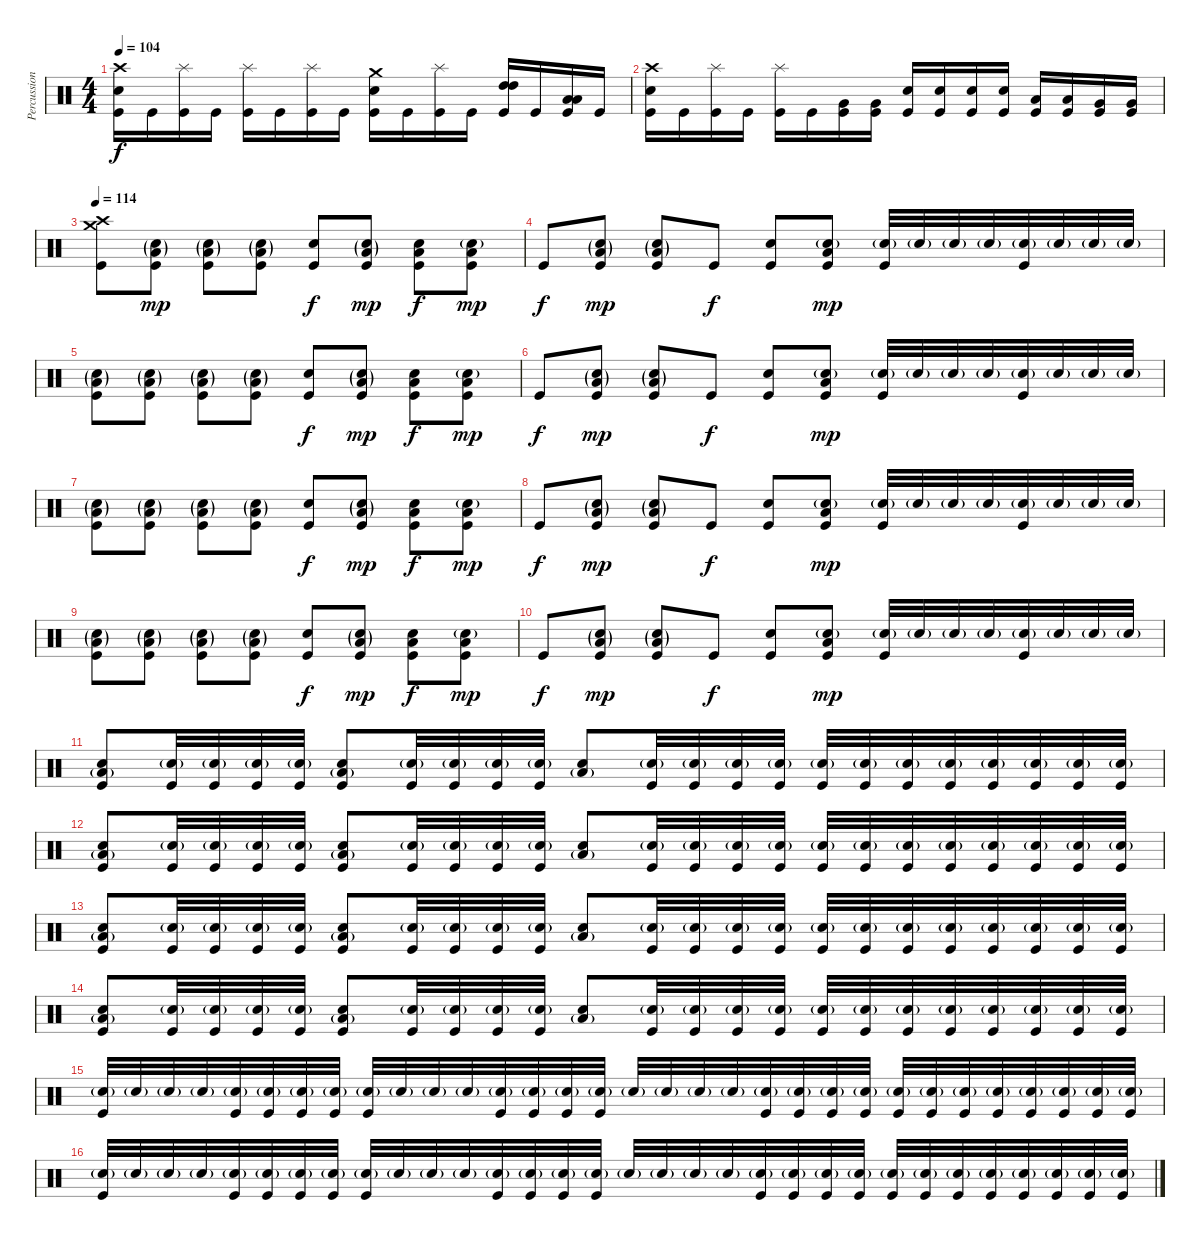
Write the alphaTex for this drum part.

\track ("Percussion" "Percussion") {instrument percussion}
\staff {score}
\articulation defaults
\ts (4 4)
\tempo 104
\clef neutral
\ks c
("Crash high (hit)" "Electric Snare (hit)" "Kick (hit)").16{dy f} "Kick (hit)".16 ("Splash (hit)" "Kick (hit)").16 "Kick (hit)".16 ("Splash (hit)" "Kick (hit)").16 "Kick (hit)".16 ("Splash (hit)" "Kick (hit)").16 "Kick (hit)".16 ("Crash medium (hit)" "Electric Snare (hit)" "Kick (hit)").16 "Kick (hit)".16 ("Splash (hit)" "Kick (hit)").16 "Kick (hit)".16 ("High Tom (hit)" "High Tom (hit)" "Kick (hit)").16 "Kick (hit)".16 ("Low Tom (hit)" "Low Tom (hit)" "Kick (hit)").16 "Kick (hit)".16 |
("Crash high (hit)" "Electric Snare (hit)" "Kick (hit)").16 "Kick (hit)".16 ("Splash (hit)" "Kick (hit)").16 "Kick (hit)".16 ("Splash (hit)" "Kick (hit)").16 "Kick (hit)".16 ("Very Low Tom (hit)" "Kick (hit)").16 ("Very Low Tom (hit)" "Kick (hit)").16 ("Electric Snare (hit)" "Kick (hit)").16 ("Electric Snare (hit)" "Kick (hit)").16 ("Electric Snare (hit)" "Kick (hit)").16 ("Electric Snare (hit)" "Kick (hit)").16 ("Low Tom (hit)" "Kick (hit)").16 ("Low Tom (hit)" "Kick (hit)").16 ("Very Low Tom (hit)" "Kick (hit)").16 ("Very Low Tom (hit)" "Kick (hit)").16 |
\tempo 114
("Crash high (hit)" "Crash medium (hit)" "Kick (hit)").8 ("Electric Snare (hit)"{g} "Low Floor Tom (hit)"{g} "Kick (hit)").8{dy mp} ("Electric Snare (hit)"{g} "Low Floor Tom (hit)"{g} "Kick (hit)").8 ("Electric Snare (hit)"{g} "Low Floor Tom (hit)"{g} "Kick (hit)").8 ("Electric Snare (hit)" "Kick (hit)").8{dy f} ("Electric Snare (hit)"{g} "Low Floor Tom (hit)"{g} "Kick (hit)").8{dy mp} ("Electric Snare (hit)" "Low Floor Tom (hit)" "Kick (hit)").8{dy f} ("Electric Snare (hit)"{g} "Low Floor Tom (hit)" "Kick (hit)").8{dy mp} |
"Kick (hit)".8{dy f} ("Electric Snare (hit)"{g} "Low Floor Tom (hit)"{g} "Kick (hit)").8{dy mp} ("Electric Snare (hit)"{g} "Low Floor Tom (hit)"{g} "Kick (hit)").8 "Kick (hit)".8{dy f} ("Electric Snare (hit)" "Kick (hit)").8 ("Electric Snare (hit)"{g} "Low Floor Tom (hit)" "Kick (hit)").8{dy mp} ("Electric Snare (hit)"{g} "Kick (hit)").32 "Electric Snare (hit)"{g}.32 "Snare (hit) 2"{g}.32 "Electric Snare (hit)"{g}.32 ("Electric Snare (hit)"{g} "Kick (hit)").32 "Electric Snare (hit)"{g}.32 "Electric Snare (hit)"{g}.32 "Electric Snare (hit)"{g}.32 |
("Electric Snare (hit)"{g} "Low Floor Tom (hit)"{g} "Kick (hit)").8 ("Electric Snare (hit)"{g} "Low Floor Tom (hit)"{g} "Kick (hit)").8 ("Electric Snare (hit)"{g} "Low Floor Tom (hit)"{g} "Kick (hit)").8 ("Electric Snare (hit)"{g} "Low Floor Tom (hit)"{g} "Kick (hit)").8 ("Electric Snare (hit)" "Kick (hit)").8{dy f} ("Electric Snare (hit)"{g} "Low Floor Tom (hit)"{g} "Kick (hit)").8{dy mp} ("Electric Snare (hit)" "Low Floor Tom (hit)" "Kick (hit)").8{dy f} ("Electric Snare (hit)"{g} "Low Floor Tom (hit)" "Kick (hit)").8{dy mp} |
"Kick (hit)".8{dy f} ("Electric Snare (hit)"{g} "Low Floor Tom (hit)"{g} "Kick (hit)").8{dy mp} ("Electric Snare (hit)"{g} "Low Floor Tom (hit)"{g} "Kick (hit)").8 "Kick (hit)".8{dy f} ("Electric Snare (hit)" "Kick (hit)").8 ("Electric Snare (hit)"{g} "Low Floor Tom (hit)" "Kick (hit)").8{dy mp} ("Electric Snare (hit)"{g} "Kick (hit)").32 "Electric Snare (hit)"{g}.32 "Electric Snare (hit)"{g}.32 "Electric Snare (hit)"{g}.32 ("Electric Snare (hit)"{g} "Kick (hit)").32 "Electric Snare (hit)"{g}.32 "Electric Snare (hit)"{g}.32 "Electric Snare (hit)"{g}.32 |
("Electric Snare (hit)"{g} "Low Floor Tom (hit)"{g} "Kick (hit)").8 ("Electric Snare (hit)"{g} "Low Floor Tom (hit)"{g} "Kick (hit)").8 ("Electric Snare (hit)"{g} "Low Floor Tom (hit)"{g} "Kick (hit)").8 ("Electric Snare (hit)"{g} "Low Floor Tom (hit)"{g} "Kick (hit)").8 ("Electric Snare (hit)" "Kick (hit)").8{dy f} ("Electric Snare (hit)"{g} "Low Floor Tom (hit)"{g} "Kick (hit)").8{dy mp} ("Electric Snare (hit)" "Low Floor Tom (hit)" "Kick (hit)").8{dy f} ("Electric Snare (hit)"{g} "Low Floor Tom (hit)" "Kick (hit)").8{dy mp} |
"Kick (hit)".8{dy f} ("Electric Snare (hit)"{g} "Low Floor Tom (hit)"{g} "Kick (hit)").8{dy mp} ("Electric Snare (hit)"{g} "Low Floor Tom (hit)"{g} "Kick (hit)").8 "Kick (hit)".8{dy f} ("Electric Snare (hit)" "Kick (hit)").8 ("Electric Snare (hit)"{g} "Low Floor Tom (hit)" "Kick (hit)").8{dy mp} ("Electric Snare (hit)"{g} "Kick (hit)").32 "Electric Snare (hit)"{g}.32 "Electric Snare (hit)"{g}.32 "Electric Snare (hit)"{g}.32 ("Electric Snare (hit)"{g} "Kick (hit)").32 "Electric Snare (hit)"{g}.32 "Electric Snare (hit)"{g}.32 "Electric Snare (hit)"{g}.32 |
("Electric Snare (hit)"{g} "Low Floor Tom (hit)"{g} "Kick (hit)").8 ("Electric Snare (hit)"{g} "Low Floor Tom (hit)"{g} "Kick (hit)").8 ("Electric Snare (hit)"{g} "Low Floor Tom (hit)"{g} "Kick (hit)").8 ("Electric Snare (hit)"{g} "Low Floor Tom (hit)"{g} "Kick (hit)").8 ("Electric Snare (hit)" "Kick (hit)").8{dy f} ("Electric Snare (hit)"{g} "Low Floor Tom (hit)"{g} "Kick (hit)").8{dy mp} ("Electric Snare (hit)" "Low Floor Tom (hit)" "Kick (hit)").8{dy f} ("Electric Snare (hit)"{g} "Low Floor Tom (hit)" "Kick (hit)").8{dy mp} |
"Kick (hit)".8{dy f} ("Electric Snare (hit)"{g} "Low Floor Tom (hit)"{g} "Kick (hit)").8{dy mp} ("Electric Snare (hit)"{g} "Low Floor Tom (hit)"{g} "Kick (hit)").8 "Kick (hit)".8{dy f} ("Electric Snare (hit)" "Kick (hit)").8 ("Electric Snare (hit)"{g} "Low Floor Tom (hit)" "Kick (hit)").8{dy mp} ("Electric Snare (hit)"{g} "Kick (hit)").32 "Electric Snare (hit)"{g}.32 "Electric Snare (hit)"{g}.32 "Electric Snare (hit)"{g}.32 ("Electric Snare (hit)"{g} "Kick (hit)").32 "Electric Snare (hit)"{g}.32 "Electric Snare (hit)"{g}.32 "Electric Snare (hit)"{g}.32 |
("Low Floor Tom (hit)"{g} "Electric Snare (hit)" "Kick (hit)").8 ("Electric Snare (hit)"{g} "Kick (hit)").32 ("Electric Snare (hit)"{g} "Kick (hit)").32 ("Electric Snare (hit)"{g} "Kick (hit)").32 ("Electric Snare (hit)"{g} "Kick (hit)").32 ("Low Floor Tom (hit)"{g} "Electric Snare (hit)" "Kick (hit)").8 ("Electric Snare (hit)"{g} "Kick (hit)").32 ("Electric Snare (hit)"{g} "Kick (hit)").32 ("Electric Snare (hit)"{g} "Kick (hit)").32 ("Electric Snare (hit)"{g} "Kick (hit)").32 ("Low Floor Tom (hit)"{g} "Electric Snare (hit)").8 ("Electric Snare (hit)"{g} "Kick (hit)").32 ("Electric Snare (hit)"{g} "Kick (hit)").32 ("Electric Snare (hit)"{g} "Kick (hit)").32 ("Electric Snare (hit)"{g} "Kick (hit)").32 ("Electric Snare (hit)"{g} "Kick (hit)").32 ("Electric Snare (hit)"{g} "Kick (hit)").32 ("Electric Snare (hit)"{g} "Kick (hit)").32 ("Electric Snare (hit)"{g} "Kick (hit)").32 ("Electric Snare (hit)"{g} "Kick (hit)").32 ("Electric Snare (hit)"{g} "Kick (hit)").32 ("Electric Snare (hit)"{g} "Kick (hit)").32 ("Electric Snare (hit)"{g} "Kick (hit)").32 |
("Low Floor Tom (hit)"{g} "Electric Snare (hit)" "Kick (hit)").8 ("Electric Snare (hit)"{g} "Kick (hit)").32 ("Electric Snare (hit)"{g} "Kick (hit)").32 ("Electric Snare (hit)"{g} "Kick (hit)").32 ("Electric Snare (hit)"{g} "Kick (hit)").32 ("Low Floor Tom (hit)"{g} "Electric Snare (hit)" "Kick (hit)").8 ("Electric Snare (hit)"{g} "Kick (hit)").32 ("Electric Snare (hit)"{g} "Kick (hit)").32 ("Electric Snare (hit)"{g} "Kick (hit)").32 ("Electric Snare (hit)"{g} "Kick (hit)").32 ("Low Floor Tom (hit)"{g} "Electric Snare (hit)").8 ("Electric Snare (hit)"{g} "Kick (hit)").32 ("Electric Snare (hit)"{g} "Kick (hit)").32 ("Electric Snare (hit)"{g} "Kick (hit)").32 ("Electric Snare (hit)"{g} "Kick (hit)").32 ("Electric Snare (hit)"{g} "Kick (hit)").32 ("Electric Snare (hit)"{g} "Kick (hit)").32 ("Electric Snare (hit)"{g} "Kick (hit)").32 ("Electric Snare (hit)"{g} "Kick (hit)").32 ("Electric Snare (hit)"{g} "Kick (hit)").32 ("Electric Snare (hit)"{g} "Kick (hit)").32 ("Electric Snare (hit)"{g} "Kick (hit)").32 ("Electric Snare (hit)"{g} "Kick (hit)").32 |
("Low Floor Tom (hit)"{g} "Electric Snare (hit)" "Kick (hit)").8 ("Electric Snare (hit)"{g} "Kick (hit)").32 ("Electric Snare (hit)"{g} "Kick (hit)").32 ("Electric Snare (hit)"{g} "Kick (hit)").32 ("Electric Snare (hit)"{g} "Kick (hit)").32 ("Low Floor Tom (hit)"{g} "Electric Snare (hit)" "Kick (hit)").8 ("Electric Snare (hit)"{g} "Kick (hit)").32 ("Electric Snare (hit)"{g} "Kick (hit)").32 ("Electric Snare (hit)"{g} "Kick (hit)").32 ("Electric Snare (hit)"{g} "Kick (hit)").32 ("Low Floor Tom (hit)"{g} "Electric Snare (hit)").8 ("Electric Snare (hit)"{g} "Kick (hit)").32 ("Electric Snare (hit)"{g} "Kick (hit)").32 ("Electric Snare (hit)"{g} "Kick (hit)").32 ("Electric Snare (hit)"{g} "Kick (hit)").32 ("Electric Snare (hit)"{g} "Kick (hit)").32 ("Electric Snare (hit)"{g} "Kick (hit)").32 ("Electric Snare (hit)"{g} "Kick (hit)").32 ("Electric Snare (hit)"{g} "Kick (hit)").32 ("Electric Snare (hit)"{g} "Kick (hit)").32 ("Electric Snare (hit)"{g} "Kick (hit)").32 ("Electric Snare (hit)"{g} "Kick (hit)").32 ("Electric Snare (hit)"{g} "Kick (hit)").32 |
("Low Floor Tom (hit)"{g} "Electric Snare (hit)" "Kick (hit)").8 ("Electric Snare (hit)"{g} "Kick (hit)").32 ("Electric Snare (hit)"{g} "Kick (hit)").32 ("Electric Snare (hit)"{g} "Kick (hit)").32 ("Electric Snare (hit)"{g} "Kick (hit)").32 ("Low Floor Tom (hit)"{g} "Electric Snare (hit)" "Kick (hit)").8 ("Electric Snare (hit)"{g} "Kick (hit)").32 ("Electric Snare (hit)"{g} "Kick (hit)").32 ("Electric Snare (hit)"{g} "Kick (hit)").32 ("Electric Snare (hit)"{g} "Kick (hit)").32 ("Low Floor Tom (hit)"{g} "Electric Snare (hit)").8 ("Electric Snare (hit)"{g} "Kick (hit)").32 ("Electric Snare (hit)"{g} "Kick (hit)").32 ("Electric Snare (hit)"{g} "Kick (hit)").32 ("Electric Snare (hit)"{g} "Kick (hit)").32 ("Electric Snare (hit)"{g} "Kick (hit)").32 ("Electric Snare (hit)"{g} "Kick (hit)").32 ("Electric Snare (hit)"{g} "Kick (hit)").32 ("Electric Snare (hit)"{g} "Kick (hit)").32 ("Electric Snare (hit)"{g} "Kick (hit)").32 ("Electric Snare (hit)"{g} "Kick (hit)").32 ("Electric Snare (hit)"{g} "Kick (hit)").32 ("Electric Snare (hit)"{g} "Kick (hit)").32 |
("Electric Snare (hit)"{g} "Kick (hit)").32 "Electric Snare (hit)"{g}.32 "Electric Snare (hit)"{g}.32 "Electric Snare (hit)"{g}.32 ("Electric Snare (hit)"{g} "Kick (hit)").32 ("Electric Snare (hit)"{g} "Kick (hit)").32 ("Electric Snare (hit)"{g} "Kick (hit)").32 ("Electric Snare (hit)"{g} "Kick (hit)").32 ("Electric Snare (hit)"{g} "Kick (hit)").32 "Electric Snare (hit)"{g}.32 "Electric Snare (hit)"{g}.32 "Electric Snare (hit)"{g}.32 ("Electric Snare (hit)"{g} "Kick (hit)").32 ("Electric Snare (hit)"{g} "Kick (hit)").32 ("Electric Snare (hit)"{g} "Kick (hit)").32 ("Electric Snare (hit)"{g} "Kick (hit)").32 "Electric Snare (hit)"{g}.32 "Electric Snare (hit)"{g}.32 "Electric Snare (hit)"{g}.32 "Electric Snare (hit)"{g}.32 ("Electric Snare (hit)"{g} "Kick (hit)").32 ("Electric Snare (hit)"{g} "Kick (hit)").32 ("Electric Snare (hit)"{g} "Kick (hit)").32 ("Electric Snare (hit)"{g} "Kick (hit)").32 ("Electric Snare (hit)"{g} "Kick (hit)").32 ("Electric Snare (hit)"{g} "Kick (hit)").32 ("Electric Snare (hit)"{g} "Kick (hit)").32 ("Electric Snare (hit)"{g} "Kick (hit)").32 ("Electric Snare (hit)"{g} "Kick (hit)").32 ("Electric Snare (hit)"{g} "Kick (hit)").32 ("Electric Snare (hit)"{g} "Kick (hit)").32 ("Electric Snare (hit)"{g} "Kick (hit)").32 |
("Electric Snare (hit)"{g} "Kick (hit)").32 "Electric Snare (hit)"{g}.32 "Electric Snare (hit)"{g}.32 "Electric Snare (hit)"{g}.32 ("Electric Snare (hit)"{g} "Kick (hit)").32 ("Electric Snare (hit)"{g} "Kick (hit)").32 ("Electric Snare (hit)"{g} "Kick (hit)").32 ("Electric Snare (hit)"{g} "Kick (hit)").32 ("Electric Snare (hit)"{g} "Kick (hit)").32 "Electric Snare (hit)"{g}.32 "Electric Snare (hit)"{g}.32 "Electric Snare (hit)"{g}.32 ("Electric Snare (hit)"{g} "Kick (hit)").32 ("Electric Snare (hit)"{g} "Kick (hit)").32 ("Electric Snare (hit)"{g} "Kick (hit)").32 ("Electric Snare (hit)"{g} "Kick (hit)").32 "Electric Snare (hit)"{g}.32 "Electric Snare (hit)"{g}.32 "Electric Snare (hit)"{g}.32 "Electric Snare (hit)"{g}.32 ("Electric Snare (hit)"{g} "Kick (hit)").32 ("Electric Snare (hit)"{g} "Kick (hit)").32 ("Electric Snare (hit)"{g} "Kick (hit)").32 ("Electric Snare (hit)"{g} "Kick (hit)").32 ("Electric Snare (hit)"{g} "Kick (hit)").32 ("Electric Snare (hit)"{g} "Kick (hit)").32 ("Electric Snare (hit)"{g} "Kick (hit)").32 ("Electric Snare (hit)"{g} "Kick (hit)").32 ("Electric Snare (hit)"{g} "Kick (hit)").32 ("Electric Snare (hit)"{g} "Kick (hit)").32 ("Electric Snare (hit)"{g} "Kick (hit)").32 ("Electric Snare (hit)"{g} "Kick (hit)").32
